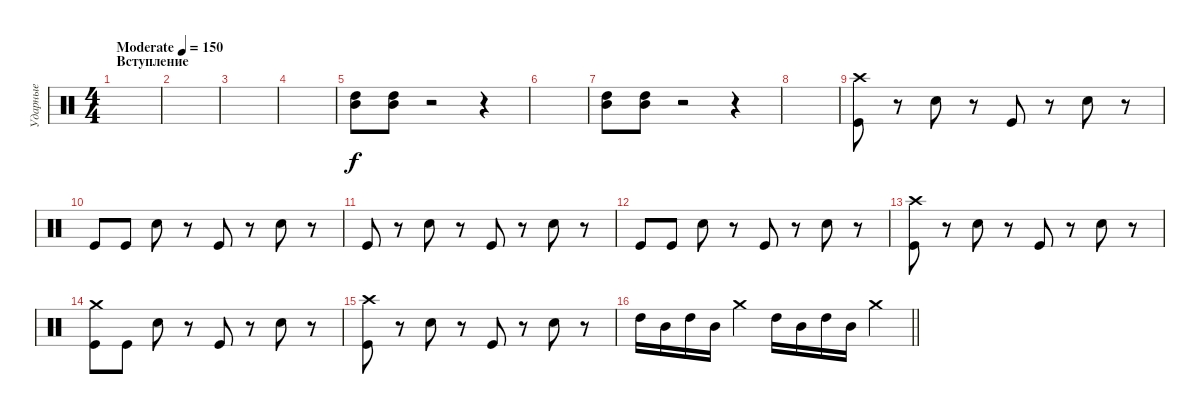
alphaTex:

\track ("Ударные" "Ударные") {instrument percussion}
\staff {score}
\articulation defaults
\ts (4 4)
\section ("" "Вступление")
\tempo (150 "Moderate")
\clef neutral
\ks c
|
|
|
|
("High Tom (hit)" "Mid Tom (hit)").8 ("Mid Tom (hit)" "High Tom (hit)").8 r.2 r.4 |
|
("High Tom (hit)" "Mid Tom (hit)").8 ("Mid Tom (hit)" "High Tom (hit)").8 r.2 r.4 |
|
("Crash high (hit)" "Kick (hit)").8 r.8 "Electric Snare (hit)".8 r.8 "Kick (hit)".8 r.8 "Electric Snare (hit)".8 r.8 |
"Kick (hit)".8 "Kick (hit)".8 "Electric Snare (hit)".8 r.8 "Kick (hit)".8 r.8 "Electric Snare (hit)".8 r.8 |
"Kick (hit)".8 r.8 "Electric Snare (hit)".8 r.8 "Kick (hit)".8 r.8 "Electric Snare (hit)".8 r.8 |
"Kick (hit)".8 "Kick (hit)".8 "Electric Snare (hit)".8 r.8 "Kick (hit)".8 r.8 "Electric Snare (hit)".8 r.8 |
("Crash high (hit)" "Kick (hit)").8 r.8 "Electric Snare (hit)".8 r.8 "Kick (hit)".8 r.8 "Electric Snare (hit)".8 r.8 |
("Crash medium (hit)" "Kick (hit)").8 "Kick (hit)".8 "Electric Snare (hit)".8 r.8 "Kick (hit)".8 r.8 "Electric Snare (hit)".8 r.8 |
("Crash high (hit)" "Kick (hit)").8 r.8 "Electric Snare (hit)".8 r.8 "Kick (hit)".8 r.8 "Electric Snare (hit)".8 r.8 |
\barLineRight lightlight "High Tom (hit)".16 "Mid Tom (hit)".16 "High Tom (hit)".16 "Mid Tom (hit)".16 "Crash medium (hit)".4 "High Tom (hit)".16 "Mid Tom (hit)".16 "High Tom (hit)".16 "Mid Tom (hit)".16 "Crash medium (hit)".4
